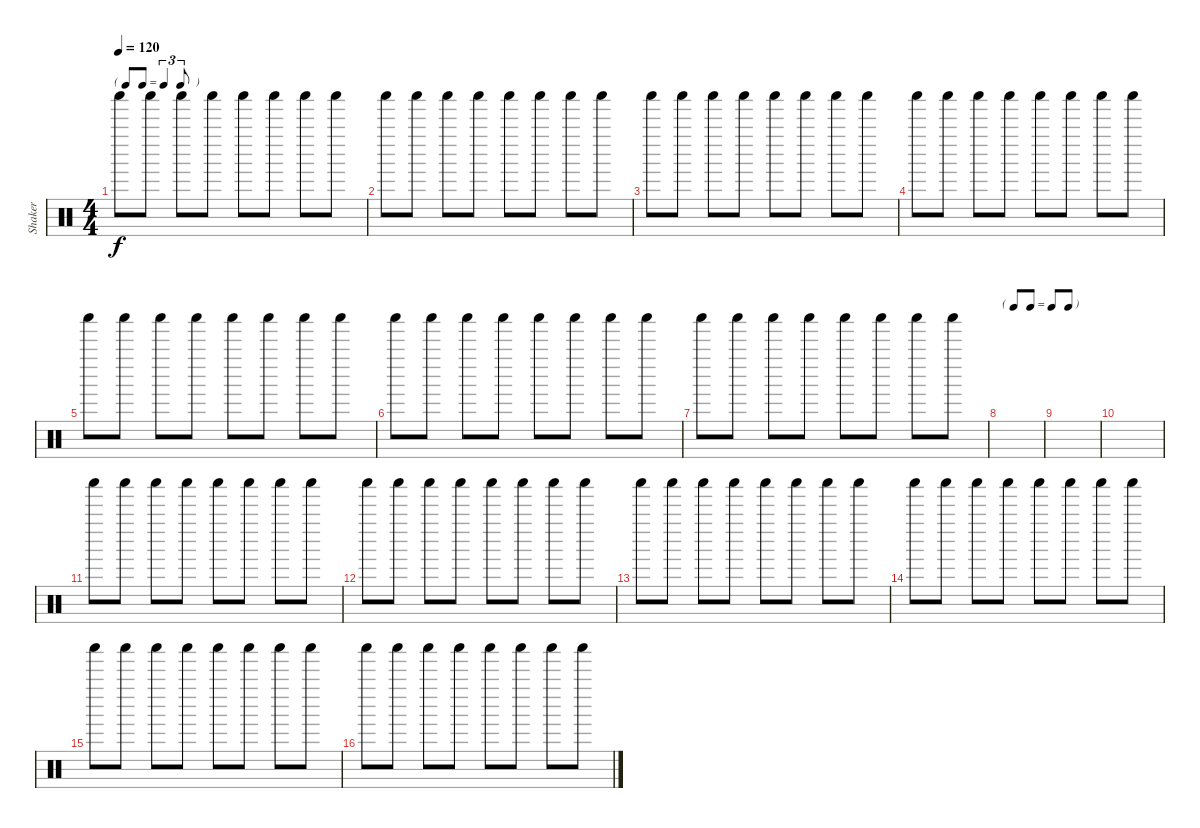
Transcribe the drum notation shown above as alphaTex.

\track ("Shaker" "Shaker") {instrument percussion}
\staff {score}
\articulation defaults
\ts (4 4)
\tf triplet8th
\tempo 120
\clef neutral
\ks c "Shaker (hit)".8{dy f} "Shaker (hit)".8 "Shaker (hit)".8 "Shaker (hit)".8 "Shaker (hit)".8 "Shaker (hit)".8 "Shaker (hit)".8 "Shaker (hit)".8
|
"Shaker (hit)".8 "Shaker (hit)".8 "Shaker (hit)".8 "Shaker (hit)".8 "Shaker (hit)".8 "Shaker (hit)".8 "Shaker (hit)".8 "Shaker (hit)".8 |
"Shaker (hit)".8 "Shaker (hit)".8 "Shaker (hit)".8 "Shaker (hit)".8 "Shaker (hit)".8 "Shaker (hit)".8 "Shaker (hit)".8 "Shaker (hit)".8 |
"Shaker (hit)".8 "Shaker (hit)".8 "Shaker (hit)".8 "Shaker (hit)".8 "Shaker (hit)".8 "Shaker (hit)".8 "Shaker (hit)".8 "Shaker (hit)".8 |
"Shaker (hit)".8 "Shaker (hit)".8 "Shaker (hit)".8 "Shaker (hit)".8 "Shaker (hit)".8 "Shaker (hit)".8 "Shaker (hit)".8 "Shaker (hit)".8 |
"Shaker (hit)".8 "Shaker (hit)".8 "Shaker (hit)".8 "Shaker (hit)".8 "Shaker (hit)".8 "Shaker (hit)".8 "Shaker (hit)".8 "Shaker (hit)".8 |
"Shaker (hit)".8 "Shaker (hit)".8 "Shaker (hit)".8 "Shaker (hit)".8 "Shaker (hit)".8 "Shaker (hit)".8 "Shaker (hit)".8 "Shaker (hit)".8 |
\tf none
|
|
|
"Shaker (hit)".8 "Shaker (hit)".8 "Shaker (hit)".8 "Shaker (hit)".8 "Shaker (hit)".8 "Shaker (hit)".8 "Shaker (hit)".8 "Shaker (hit)".8 |
"Shaker (hit)".8 "Shaker (hit)".8 "Shaker (hit)".8 "Shaker (hit)".8 "Shaker (hit)".8 "Shaker (hit)".8 "Shaker (hit)".8 "Shaker (hit)".8 |
"Shaker (hit)".8 "Shaker (hit)".8 "Shaker (hit)".8 "Shaker (hit)".8 "Shaker (hit)".8 "Shaker (hit)".8 "Shaker (hit)".8 "Shaker (hit)".8 |
"Shaker (hit)".8 "Shaker (hit)".8 "Shaker (hit)".8 "Shaker (hit)".8 "Shaker (hit)".8 "Shaker (hit)".8 "Shaker (hit)".8 "Shaker (hit)".8 |
"Shaker (hit)".8 "Shaker (hit)".8 "Shaker (hit)".8 "Shaker (hit)".8 "Shaker (hit)".8 "Shaker (hit)".8 "Shaker (hit)".8 "Shaker (hit)".8 |
"Shaker (hit)".8 "Shaker (hit)".8 "Shaker (hit)".8 "Shaker (hit)".8 "Shaker (hit)".8 "Shaker (hit)".8 "Shaker (hit)".8 "Shaker (hit)".8
